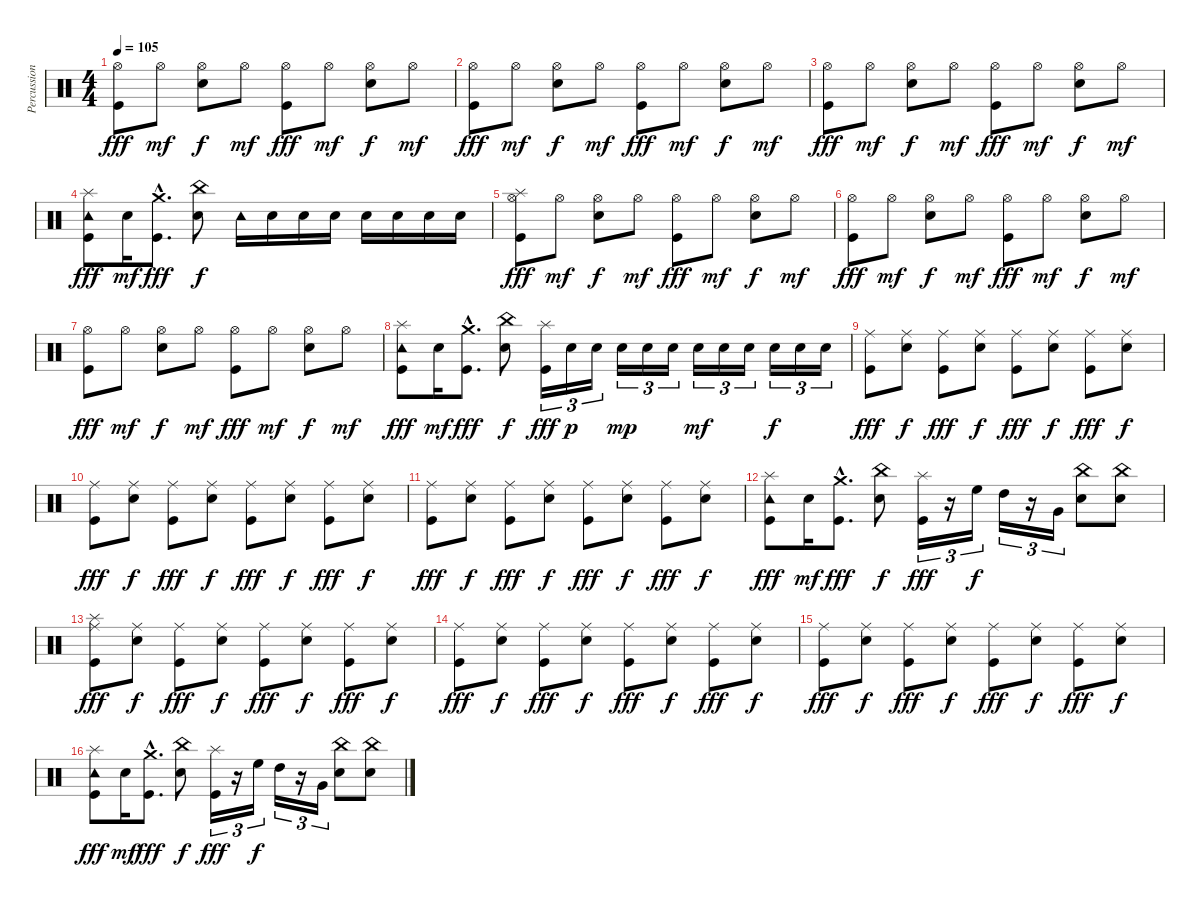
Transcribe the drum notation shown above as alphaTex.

\track ("Percussions" "Percussion") {instrument percussion}
\staff {score}
\articulation defaults
\ts (4 4)
\tempo 105
\clef neutral
\ks c
("Hi-Hat (open)" "Kick (hit)").8{dy fff} "Hi-Hat (open)".8{dy mf} ("Hi-Hat (open)" "Electric Snare (hit)").8{dy f} "Hi-Hat (open)".8{dy mf} ("Hi-Hat (open)" "Kick (hit)").8{dy fff} "Hi-Hat (open)".8{dy mf} ("Hi-Hat (open)" "Electric Snare (hit)").8{dy f} "Hi-Hat (open)".8{dy mf} |
("Hi-Hat (open)" "Kick (hit)").8{dy fff} "Hi-Hat (open)".8{dy mf} ("Hi-Hat (open)" "Electric Snare (hit)").8{dy f} "Hi-Hat (open)".8{dy mf} ("Hi-Hat (open)" "Kick (hit)").8{dy fff} "Hi-Hat (open)".8{dy mf} ("Hi-Hat (open)" "Electric Snare (hit)").8{dy f} "Hi-Hat (open)".8{dy mf} |
("Hi-Hat (open)" "Kick (hit)").8{dy fff} "Hi-Hat (open)".8{dy mf} ("Hi-Hat (open)" "Electric Snare (hit)").8{dy f} "Hi-Hat (open)".8{dy mf} ("Hi-Hat (open)" "Kick (hit)").8{dy fff} "Hi-Hat (open)".8{dy mf} ("Hi-Hat (open)" "Electric Snare (hit)").8{dy f} "Hi-Hat (open)".8{dy mf} |
("Tambourine (hit)" "Splash (hit)" "Kick (hit)").8{dy fff} "Electric Snare (hit)".16{dy mf} ("Crash medium (hit)"{hac} "Kick (hit)"{hac}).8{d dy fff} ("China (hit)" "Electric Snare (hit)").8{dy f} "Tambourine (hit)".16 "Electric Snare (hit)".16 "Electric Snare (hit)".16 "Electric Snare (hit)".16 "Electric Snare (hit)".16 "Electric Snare (hit)".16 "Electric Snare (hit)".16 "Electric Snare (hit)".16 |
("Splash (hit)" "Hi-Hat (open)" "Kick (hit)").8{dy fff} "Hi-Hat (open)".8{dy mf} ("Hi-Hat (open)" "Electric Snare (hit)").8{dy f} "Hi-Hat (open)".8{dy mf} ("Hi-Hat (open)" "Kick (hit)").8{dy fff} "Hi-Hat (open)".8{dy mf} ("Hi-Hat (open)" "Electric Snare (hit)").8{dy f} "Hi-Hat (open)".8{dy mf} |
("Hi-Hat (open)" "Kick (hit)").8{dy fff} "Hi-Hat (open)".8{dy mf} ("Hi-Hat (open)" "Electric Snare (hit)").8{dy f} "Hi-Hat (open)".8{dy mf} ("Hi-Hat (open)" "Kick (hit)").8{dy fff} "Hi-Hat (open)".8{dy mf} ("Hi-Hat (open)" "Electric Snare (hit)").8{dy f} "Hi-Hat (open)".8{dy mf} |
("Hi-Hat (open)" "Kick (hit)").8{dy fff} "Hi-Hat (open)".8{dy mf} ("Hi-Hat (open)" "Electric Snare (hit)").8{dy f} "Hi-Hat (open)".8{dy mf} ("Hi-Hat (open)" "Kick (hit)").8{dy fff} "Hi-Hat (open)".8{dy mf} ("Hi-Hat (open)" "Electric Snare (hit)").8{dy f} "Hi-Hat (open)".8{dy mf} |
("Tambourine (hit)" "Splash (hit)" "Kick (hit)").8{dy fff} "Electric Snare (hit)".16{dy mf} ("Crash medium (hit)"{hac} "Kick (hit)"{hac}).8{d dy fff} ("China (hit)" "Electric Snare (hit)").8{dy f} ("Splash (hit)" "Kick (hit)").16{tu (3 2) dy fff} "Electric Snare (hit)".16{tu (3 2) dy p} "Electric Snare (hit)".16{tu (3 2)} "Electric Snare (hit)".16{tu (3 2) dy mp} "Electric Snare (hit)".16{tu (3 2)} "Electric Snare (hit)".16{tu (3 2)} "Electric Snare (hit)".16{tu (3 2) dy mf} "Electric Snare (hit)".16{tu (3 2)} "Electric Snare (hit)".16{tu (3 2)} "Electric Snare (hit)".16{tu (3 2) dy f} "Electric Snare (hit)".16{tu (3 2)} "Electric Snare (hit)".16{tu (3 2)} |
("Ride (middle)" "Kick (hit)").8{dy fff} ("Ride (middle)" "Electric Snare (hit)").8{dy f} ("Ride (middle)" "Kick (hit)").8{dy fff} ("Ride (middle)" "Electric Snare (hit)").8{dy f} ("Ride (middle)" "Kick (hit)").8{dy fff} ("Ride (middle)" "Electric Snare (hit)").8{dy f} ("Ride (middle)" "Kick (hit)").8{dy fff} ("Ride (middle)" "Electric Snare (hit)").8{dy f} |
("Ride (middle)" "Kick (hit)").8{dy fff} ("Ride (middle)" "Electric Snare (hit)").8{dy f} ("Ride (middle)" "Kick (hit)").8{dy fff} ("Ride (middle)" "Electric Snare (hit)").8{dy f} ("Ride (middle)" "Kick (hit)").8{dy fff} ("Ride (middle)" "Electric Snare (hit)").8{dy f} ("Ride (middle)" "Kick (hit)").8{dy fff} ("Ride (middle)" "Electric Snare (hit)").8{dy f} |
("Ride (middle)" "Kick (hit)").8{dy fff} ("Ride (middle)" "Electric Snare (hit)").8{dy f} ("Ride (middle)" "Kick (hit)").8{dy fff} ("Ride (middle)" "Electric Snare (hit)").8{dy f} ("Ride (middle)" "Kick (hit)").8{dy fff} ("Ride (middle)" "Electric Snare (hit)").8{dy f} ("Ride (middle)" "Kick (hit)").8{dy fff} ("Ride (middle)" "Electric Snare (hit)").8{dy f} |
("Tambourine (hit)" "Splash (hit)" "Kick (hit)").8{dy fff} "Electric Snare (hit)".16{dy mf} ("Crash medium (hit)"{hac} "Kick (hit)"{hac}).8{d dy fff} ("China (hit)" "Electric Snare (hit)").8{dy f} ("Splash (hit)" "Kick (hit)").16{tu (3 2) dy fff} r.16{tu (3 2)} "High Floor Tom (hit)".16{tu (3 2) dy f} "High Tom (hit)".16{tu (3 2)} r.16{tu (3 2)} "Very Low Tom (hit)".16{tu (3 2)} ("China (hit)" "Electric Snare (hit)").8 ("China (hit)" "Electric Snare (hit)").8 |
("Splash (hit)" "Ride (middle)" "Kick (hit)").8{dy fff} ("Ride (middle)" "Electric Snare (hit)").8{dy f} ("Ride (middle)" "Kick (hit)").8{dy fff} ("Ride (middle)" "Electric Snare (hit)").8{dy f} ("Ride (middle)" "Kick (hit)").8{dy fff} ("Ride (middle)" "Electric Snare (hit)").8{dy f} ("Ride (middle)" "Kick (hit)").8{dy fff} ("Ride (middle)" "Electric Snare (hit)").8{dy f} |
("Ride (middle)" "Kick (hit)").8{dy fff} ("Ride (middle)" "Electric Snare (hit)").8{dy f} ("Ride (middle)" "Kick (hit)").8{dy fff} ("Ride (middle)" "Electric Snare (hit)").8{dy f} ("Ride (middle)" "Kick (hit)").8{dy fff} ("Ride (middle)" "Electric Snare (hit)").8{dy f} ("Ride (middle)" "Kick (hit)").8{dy fff} ("Ride (middle)" "Electric Snare (hit)").8{dy f} |
("Ride (middle)" "Kick (hit)").8{dy fff} ("Ride (middle)" "Electric Snare (hit)").8{dy f} ("Ride (middle)" "Kick (hit)").8{dy fff} ("Ride (middle)" "Electric Snare (hit)").8{dy f} ("Ride (middle)" "Kick (hit)").8{dy fff} ("Ride (middle)" "Electric Snare (hit)").8{dy f} ("Ride (middle)" "Kick (hit)").8{dy fff} ("Ride (middle)" "Electric Snare (hit)").8{dy f} |
("Tambourine (hit)" "Splash (hit)" "Kick (hit)").8{dy fff} "Electric Snare (hit)".16{dy mf} ("Crash medium (hit)"{hac} "Kick (hit)"{hac}).8{d dy fff} ("China (hit)" "Electric Snare (hit)").8{dy f} ("Splash (hit)" "Kick (hit)").16{tu (3 2) dy fff} r.16{tu (3 2)} "High Floor Tom (hit)".16{tu (3 2) dy f} "High Tom (hit)".16{tu (3 2)} r.16{tu (3 2)} "Very Low Tom (hit)".16{tu (3 2)} ("China (hit)" "Electric Snare (hit)").8 ("China (hit)" "Electric Snare (hit)").8
